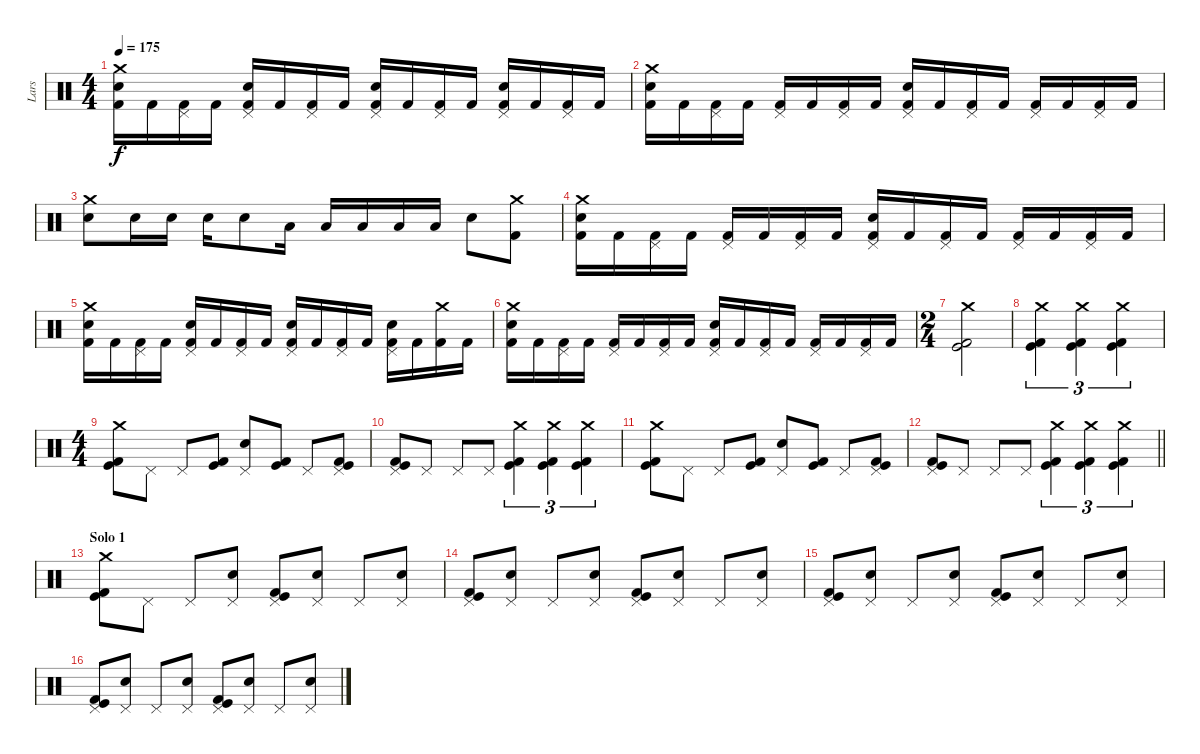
\track ("Lars" "Lars") {instrument percussion}
\staff {score}
\articulation defaults
\ts (4 4)
\tempo 175
\clef neutral
\ks c
("Crash medium (hit)" "Electric Snare (hit)" "Kick (hit) 2").16{dy f} "Kick (hit) 2".16 ("Pedal Hi-Hat (hit)" "Kick (hit) 2").16 "Kick (hit) 2".16 ("Pedal Hi-Hat (hit)" "Electric Snare (hit)" "Kick (hit) 2").16 "Kick (hit) 2".16 ("Pedal Hi-Hat (hit)" "Kick (hit) 2").16 "Kick (hit) 2".16 ("Pedal Hi-Hat (hit)" "Electric Snare (hit)" "Kick (hit) 2").16 "Kick (hit) 2".16 ("Pedal Hi-Hat (hit)" "Kick (hit) 2").16 "Kick (hit) 2".16 ("Pedal Hi-Hat (hit)" "Electric Snare (hit)" "Kick (hit) 2").16 "Kick (hit) 2".16 ("Pedal Hi-Hat (hit)" "Kick (hit) 2").16 "Kick (hit) 2".16 |
("Crash medium (hit)" "Electric Snare (hit)" "Kick (hit) 2").16 "Kick (hit) 2".16 ("Pedal Hi-Hat (hit)" "Kick (hit) 2").16 "Kick (hit) 2".16 ("Pedal Hi-Hat (hit)" "Kick (hit) 2").16 "Kick (hit) 2".16 ("Pedal Hi-Hat (hit)" "Kick (hit) 2").16 "Kick (hit) 2".16 ("Pedal Hi-Hat (hit)" "Electric Snare (hit)" "Kick (hit) 2").16 "Kick (hit) 2".16 ("Pedal Hi-Hat (hit)" "Kick (hit) 2").16 "Kick (hit) 2".16 ("Pedal Hi-Hat (hit)" "Kick (hit) 2").16 "Kick (hit) 2".16 ("Pedal Hi-Hat (hit)" "Kick (hit) 2").16 "Kick (hit) 2".16 |
("Crash medium (hit)" "Electric Snare (hit)").8 "Electric Snare (hit)".16 "Electric Snare (hit)".16 "Electric Snare (hit)".16 "Electric Snare (hit)".8 "Low Tom (hit)".16 "Low Tom (hit)".16 "Low Tom (hit)".16 "Low Tom (hit)".16 "Low Tom (hit)".16 "Electric Snare (hit)".8 ("Crash medium (hit)" "Kick (hit) 2").8 |
("Crash medium (hit)" "Electric Snare (hit)" "Kick (hit) 2").16 "Kick (hit) 2".16 ("Pedal Hi-Hat (hit)" "Kick (hit) 2").16 "Kick (hit) 2".16 ("Pedal Hi-Hat (hit)" "Kick (hit) 2").16 "Kick (hit) 2".16 ("Pedal Hi-Hat (hit)" "Kick (hit) 2").16 "Kick (hit) 2".16 ("Pedal Hi-Hat (hit)" "Electric Snare (hit)" "Kick (hit) 2").16 "Kick (hit) 2".16 ("Pedal Hi-Hat (hit)" "Kick (hit) 2").16 "Kick (hit) 2".16 ("Pedal Hi-Hat (hit)" "Kick (hit) 2").16 "Kick (hit) 2".16 ("Pedal Hi-Hat (hit)" "Kick (hit) 2").16 "Kick (hit) 2".16 |
("Crash medium (hit)" "Electric Snare (hit)" "Kick (hit) 2").16 "Kick (hit) 2".16 ("Pedal Hi-Hat (hit)" "Kick (hit) 2").16 "Kick (hit) 2".16 ("Pedal Hi-Hat (hit)" "Electric Snare (hit)" "Kick (hit) 2").16 "Kick (hit) 2".16 ("Pedal Hi-Hat (hit)" "Kick (hit) 2").16 "Kick (hit) 2".16 ("Pedal Hi-Hat (hit)" "Electric Snare (hit)" "Kick (hit) 2").16 "Kick (hit) 2".16 ("Pedal Hi-Hat (hit)" "Kick (hit) 2").16 "Kick (hit) 2".16 ("Pedal Hi-Hat (hit)" "Electric Snare (hit)" "Kick (hit) 2").16 "Kick (hit) 2".16 ("Crash medium (hit)" "Kick (hit) 2").16 "Kick (hit) 2".16 |
("Crash medium (hit)" "Electric Snare (hit)" "Kick (hit) 2").16 "Kick (hit) 2".16 ("Pedal Hi-Hat (hit)" "Kick (hit) 2").16 "Kick (hit) 2".16 ("Pedal Hi-Hat (hit)" "Kick (hit) 2").16 "Kick (hit) 2".16 ("Pedal Hi-Hat (hit)" "Kick (hit) 2").16 "Kick (hit) 2".16 ("Pedal Hi-Hat (hit)" "Electric Snare (hit)" "Kick (hit) 2").16 "Kick (hit) 2".16 ("Pedal Hi-Hat (hit)" "Kick (hit) 2").16 "Kick (hit) 2".16 ("Pedal Hi-Hat (hit)" "Kick (hit) 2").16 "Kick (hit) 2".16 ("Pedal Hi-Hat (hit)" "Kick (hit) 2").16 "Kick (hit) 2".16 |
\ts (2 4)
("Crash medium (hit)" "Kick (hit)" "Kick (hit) 2").2 |
("Crash medium (hit)" "Kick (hit)" "Kick (hit) 2").4{tu (3 2)} ("Crash medium (hit)" "Kick (hit)" "Kick (hit) 2").4{tu (3 2)} ("Crash medium (hit)" "Kick (hit)" "Kick (hit) 2").4{tu (3 2)} |
\ts (4 4)
("Crash medium (hit)" "Kick (hit)" "Kick (hit) 2").8 "Pedal Hi-Hat (hit)".8 "Pedal Hi-Hat (hit)".8 ("Kick (hit)" "Kick (hit) 2").8 ("Pedal Hi-Hat (hit)" "Electric Snare (hit)").8 ("Kick (hit)" "Kick (hit) 2").8 "Pedal Hi-Hat (hit)".8 ("Pedal Hi-Hat (hit)" "Kick (hit)" "Kick (hit) 2").8 |
("Pedal Hi-Hat (hit)" "Kick (hit)" "Kick (hit) 2").8 "Pedal Hi-Hat (hit)".8 "Pedal Hi-Hat (hit)".8 "Pedal Hi-Hat (hit)".8 ("Crash medium (hit)" "Kick (hit)" "Kick (hit) 2").4{tu (3 2)} ("Crash medium (hit)" "Kick (hit)" "Kick (hit) 2").4{tu (3 2)} ("Crash medium (hit)" "Kick (hit)" "Kick (hit) 2").4{tu (3 2)} |
("Crash medium (hit)" "Kick (hit)" "Kick (hit) 2").8 "Pedal Hi-Hat (hit)".8 "Pedal Hi-Hat (hit)".8 ("Kick (hit)" "Kick (hit) 2").8 ("Pedal Hi-Hat (hit)" "Electric Snare (hit)").8 ("Kick (hit)" "Kick (hit) 2").8 "Pedal Hi-Hat (hit)".8 ("Pedal Hi-Hat (hit)" "Kick (hit)" "Kick (hit) 2").8 |
\barLineRight lightlight
("Pedal Hi-Hat (hit)" "Kick (hit)" "Kick (hit) 2").8 "Pedal Hi-Hat (hit)".8 "Pedal Hi-Hat (hit)".8 "Pedal Hi-Hat (hit)".8 ("Crash medium (hit)" "Kick (hit)" "Kick (hit) 2").4{tu (3 2)} ("Crash medium (hit)" "Kick (hit)" "Kick (hit) 2").4{tu (3 2)} ("Crash medium (hit)" "Kick (hit)" "Kick (hit) 2").4{tu (3 2)} |
\section ("" "Solo 1")
("Crash medium (hit)" "Kick (hit)" "Kick (hit) 2").8 "Pedal Hi-Hat (hit)".8 "Pedal Hi-Hat (hit)".8 ("Pedal Hi-Hat (hit)" "Electric Snare (hit)").8 ("Pedal Hi-Hat (hit)" "Kick (hit)" "Kick (hit) 2").8 ("Pedal Hi-Hat (hit)" "Electric Snare (hit)").8 "Pedal Hi-Hat (hit)".8 ("Pedal Hi-Hat (hit)" "Electric Snare (hit)").8 |
("Pedal Hi-Hat (hit)" "Kick (hit)" "Kick (hit) 2").8 ("Pedal Hi-Hat (hit)" "Electric Snare (hit)").8 "Pedal Hi-Hat (hit)".8 ("Pedal Hi-Hat (hit)" "Electric Snare (hit)").8 ("Pedal Hi-Hat (hit)" "Kick (hit)" "Kick (hit) 2").8 ("Pedal Hi-Hat (hit)" "Electric Snare (hit)").8 "Pedal Hi-Hat (hit)".8 ("Pedal Hi-Hat (hit)" "Electric Snare (hit)").8 |
("Pedal Hi-Hat (hit)" "Kick (hit)" "Kick (hit) 2").8 ("Pedal Hi-Hat (hit)" "Electric Snare (hit)").8 "Pedal Hi-Hat (hit)".8 ("Pedal Hi-Hat (hit)" "Electric Snare (hit)").8 ("Pedal Hi-Hat (hit)" "Kick (hit)" "Kick (hit) 2").8 ("Pedal Hi-Hat (hit)" "Electric Snare (hit)").8 "Pedal Hi-Hat (hit)".8 ("Pedal Hi-Hat (hit)" "Electric Snare (hit)").8 |
("Pedal Hi-Hat (hit)" "Kick (hit)" "Kick (hit) 2").8 ("Pedal Hi-Hat (hit)" "Electric Snare (hit)").8 "Pedal Hi-Hat (hit)".8 ("Pedal Hi-Hat (hit)" "Electric Snare (hit)").8 ("Pedal Hi-Hat (hit)" "Kick (hit)" "Kick (hit) 2").8 ("Pedal Hi-Hat (hit)" "Electric Snare (hit)").8 "Pedal Hi-Hat (hit)".8 ("Pedal Hi-Hat (hit)" "Electric Snare (hit)").8
